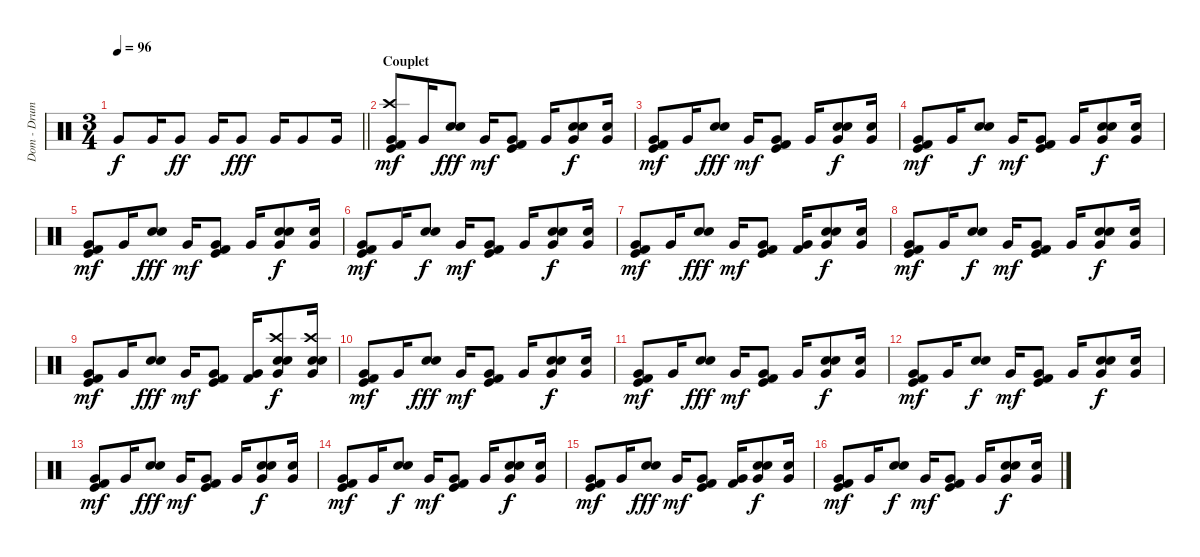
\track ("Dom - Drums" "Dom - Drum") {instrument percussion}
\staff {score}
\articulation defaults
\ts (3 4)
\tempo 96
\clef neutral
\barLineRight lightlight
\ks c "Very Low Tom (hit)".8{dy f} "Very Low Tom (hit)".16 "Very Low Tom (hit)".8{dy ff} "Very Low Tom (hit)".16 "Very Low Tom (hit)".8{dy fff} "Very Low Tom (hit)".16 "Very Low Tom (hit)".8 "Very Low Tom (hit)".16
|
\section ("" "Couplet")
("Crash high (hit)" "Very Low Tom (hit)" "Kick (hit)" "Kick (hit) 2").8{dy mf} "Very Low Tom (hit)".16 ("Electric Snare (hit)" "Snare (hit) 2").8{dy fff} "Very Low Tom (hit)".16{dy mf} ("Very Low Tom (hit)" "Kick (hit)" "Kick (hit) 2").8 "Very Low Tom (hit)".16 ("Very Low Tom (hit)" "Snare (hit) 2" "Hand Clap (hit)").8{dy f} ("Very Low Tom (hit)" "Hand Clap (hit)").16 |
("Very Low Tom (hit)" "Kick (hit)" "Kick (hit) 2").8{dy mf} "Very Low Tom (hit)".16 ("Electric Snare (hit)" "Snare (hit) 2").8{dy fff} "Very Low Tom (hit)".16{dy mf} ("Very Low Tom (hit)" "Kick (hit)" "Kick (hit) 2").8 "Very Low Tom (hit)".16 ("Very Low Tom (hit)" "Snare (hit) 2" "Hand Clap (hit)").8{dy f} ("Very Low Tom (hit)" "Hand Clap (hit)").16 |
("Very Low Tom (hit)" "Kick (hit)" "Kick (hit) 2").8{dy mf} "Very Low Tom (hit)".16 ("Electric Snare (hit)" "Snare (hit) 2").8{dy f} "Very Low Tom (hit)".16{dy mf} ("Very Low Tom (hit)" "Kick (hit)" "Kick (hit) 2").8 "Very Low Tom (hit)".16 ("Very Low Tom (hit)" "Snare (hit) 2" "Hand Clap (hit)").8{dy f} ("Very Low Tom (hit)" "Hand Clap (hit)").16 |
("Very Low Tom (hit)" "Kick (hit)" "Kick (hit) 2").8{dy mf} "Very Low Tom (hit)".16 ("Electric Snare (hit)" "Snare (hit) 2").8{dy fff} "Very Low Tom (hit)".16{dy mf} ("Very Low Tom (hit)" "Kick (hit)" "Kick (hit) 2").8 "Very Low Tom (hit)".16 ("Very Low Tom (hit)" "Snare (hit) 2" "Hand Clap (hit)").8{dy f} ("Very Low Tom (hit)" "Hand Clap (hit)").16 |
("Very Low Tom (hit)" "Kick (hit)" "Kick (hit) 2").8{dy mf} "Very Low Tom (hit)".16 ("Electric Snare (hit)" "Snare (hit) 2").8{dy f} "Very Low Tom (hit)".16{dy mf} ("Very Low Tom (hit)" "Kick (hit)" "Kick (hit) 2").8 "Very Low Tom (hit)".16 ("Very Low Tom (hit)" "Snare (hit) 2" "Hand Clap (hit)").8{dy f} ("Very Low Tom (hit)" "Hand Clap (hit)").16 |
("Very Low Tom (hit)" "Kick (hit)" "Kick (hit) 2").8{dy mf} "Very Low Tom (hit)".16 ("Electric Snare (hit)" "Snare (hit) 2").8{dy fff} "Very Low Tom (hit)".16{dy mf} ("Very Low Tom (hit)" "Kick (hit)" "Kick (hit) 2").8 ("Very Low Tom (hit)" "Kick (hit) 2").16 ("Very Low Tom (hit)" "Snare (hit) 2" "Hand Clap (hit)").8{dy f} ("Very Low Tom (hit)" "Hand Clap (hit)").16 |
("Very Low Tom (hit)" "Kick (hit)" "Kick (hit) 2").8{dy mf} "Very Low Tom (hit)".16 ("Electric Snare (hit)" "Snare (hit) 2").8{dy f} "Very Low Tom (hit)".16{dy mf} ("Very Low Tom (hit)" "Kick (hit)" "Kick (hit) 2").8 "Very Low Tom (hit)".16 ("Very Low Tom (hit)" "Snare (hit) 2" "Hand Clap (hit)").8{dy f} ("Very Low Tom (hit)" "Hand Clap (hit)").16 |
("Very Low Tom (hit)" "Kick (hit)" "Kick (hit) 2").8{dy mf} "Very Low Tom (hit)".16 ("Electric Snare (hit)" "Snare (hit) 2").8{dy fff} "Very Low Tom (hit)".16{dy mf} ("Very Low Tom (hit)" "Kick (hit)" "Kick (hit) 2").8 ("Very Low Tom (hit)" "Kick (hit) 2").16 ("Crash high (hit)" "Very Low Tom (hit)" "Snare (hit) 2" "Hand Clap (hit)").8{dy f} ("Crash high (hit)" "Very Low Tom (hit)" "Snare (hit) 2" "Hand Clap (hit)").16 |
("Very Low Tom (hit)" "Kick (hit)" "Kick (hit) 2").8{dy mf} "Very Low Tom (hit)".16 ("Electric Snare (hit)" "Snare (hit) 2").8{dy fff} "Very Low Tom (hit)".16{dy mf} ("Very Low Tom (hit)" "Kick (hit)" "Kick (hit) 2").8 "Very Low Tom (hit)".16 ("Very Low Tom (hit)" "Snare (hit) 2" "Hand Clap (hit)").8{dy f} ("Very Low Tom (hit)" "Hand Clap (hit)").16 |
("Very Low Tom (hit)" "Kick (hit)" "Kick (hit) 2").8{dy mf} "Very Low Tom (hit)".16 ("Electric Snare (hit)" "Snare (hit) 2").8{dy fff} "Very Low Tom (hit)".16{dy mf} ("Very Low Tom (hit)" "Kick (hit)" "Kick (hit) 2").8 "Very Low Tom (hit)".16 ("Very Low Tom (hit)" "Snare (hit) 2" "Hand Clap (hit)").8{dy f} ("Very Low Tom (hit)" "Hand Clap (hit)").16 |
("Very Low Tom (hit)" "Kick (hit)" "Kick (hit) 2").8{dy mf} "Very Low Tom (hit)".16 ("Electric Snare (hit)" "Snare (hit) 2").8{dy f} "Very Low Tom (hit)".16{dy mf} ("Very Low Tom (hit)" "Kick (hit)" "Kick (hit) 2").8 "Very Low Tom (hit)".16 ("Very Low Tom (hit)" "Snare (hit) 2" "Hand Clap (hit)").8{dy f} ("Very Low Tom (hit)" "Hand Clap (hit)").16 |
("Very Low Tom (hit)" "Kick (hit)" "Kick (hit) 2").8{dy mf} "Very Low Tom (hit)".16 ("Electric Snare (hit)" "Snare (hit) 2").8{dy fff} "Very Low Tom (hit)".16{dy mf} ("Very Low Tom (hit)" "Kick (hit)" "Kick (hit) 2").8 "Very Low Tom (hit)".16 ("Very Low Tom (hit)" "Snare (hit) 2" "Hand Clap (hit)").8{dy f} ("Very Low Tom (hit)" "Hand Clap (hit)").16 |
("Very Low Tom (hit)" "Kick (hit)" "Kick (hit) 2").8{dy mf} "Very Low Tom (hit)".16 ("Electric Snare (hit)" "Snare (hit) 2").8{dy f} "Very Low Tom (hit)".16{dy mf} ("Very Low Tom (hit)" "Kick (hit)" "Kick (hit) 2").8 "Very Low Tom (hit)".16 ("Very Low Tom (hit)" "Snare (hit) 2" "Hand Clap (hit)").8{dy f} ("Very Low Tom (hit)" "Hand Clap (hit)").16 |
("Very Low Tom (hit)" "Kick (hit)" "Kick (hit) 2").8{dy mf} "Very Low Tom (hit)".16 ("Electric Snare (hit)" "Snare (hit) 2").8{dy fff} "Very Low Tom (hit)".16{dy mf} ("Very Low Tom (hit)" "Kick (hit)" "Kick (hit) 2").8 ("Very Low Tom (hit)" "Kick (hit) 2").16 ("Very Low Tom (hit)" "Snare (hit) 2" "Hand Clap (hit)").8{dy f} ("Very Low Tom (hit)" "Hand Clap (hit)").16 |
("Very Low Tom (hit)" "Kick (hit)" "Kick (hit) 2").8{dy mf} "Very Low Tom (hit)".16 ("Electric Snare (hit)" "Snare (hit) 2").8{dy f} "Very Low Tom (hit)".16{dy mf} ("Very Low Tom (hit)" "Kick (hit)" "Kick (hit) 2").8 "Very Low Tom (hit)".16 ("Very Low Tom (hit)" "Snare (hit) 2" "Hand Clap (hit)").8{dy f} ("Very Low Tom (hit)" "Hand Clap (hit)").16
